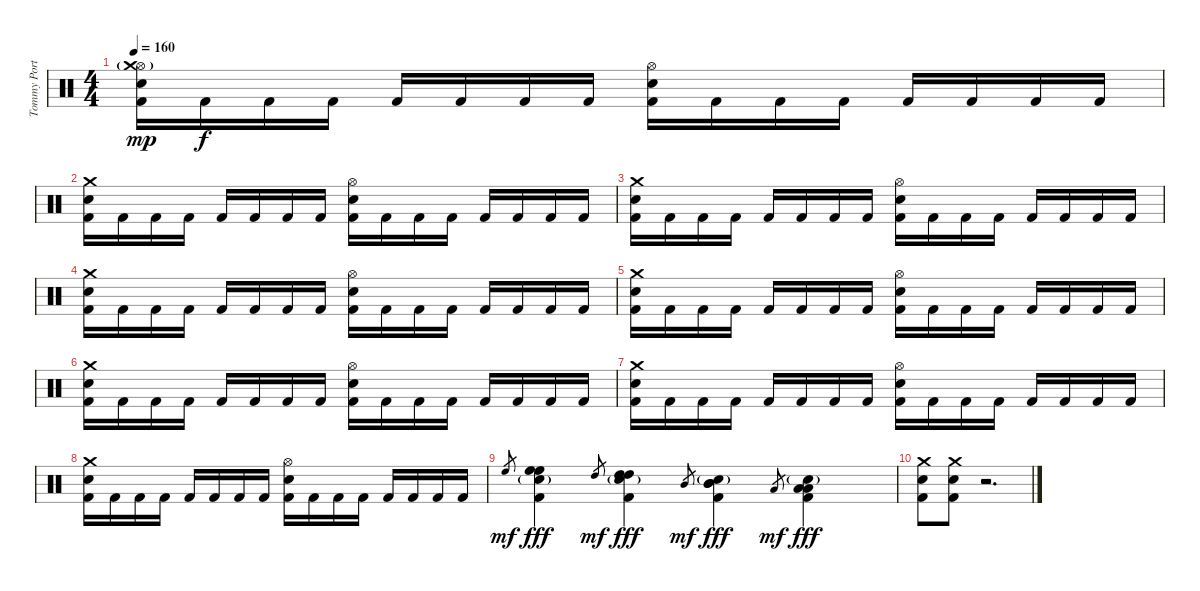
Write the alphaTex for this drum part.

\track ("Tommy Portino" "Tommy Port") {instrument percussion}
\staff {score}
\articulation defaults
\ts (4 4)
\tempo 160
\clef neutral
\ks c
("Hi-Hat (open)"{g} "Crash medium (hit)" "Snare (hit) 2" "Kick (hit) 2").16{dy mp} "Kick (hit) 2".16{dy f} "Kick (hit) 2".16 "Kick (hit) 2".16 "Kick (hit) 2".16 "Kick (hit) 2".16 "Kick (hit) 2".16 "Kick (hit) 2".16 ("Hi-Hat (open)" "Snare (hit) 2" "Kick (hit) 2").16 "Kick (hit) 2".16 "Kick (hit) 2".16 "Kick (hit) 2".16 "Kick (hit) 2".16 "Kick (hit) 2".16 "Kick (hit) 2".16 "Kick (hit) 2".16 |
("Crash medium (hit)" "Snare (hit) 2" "Kick (hit) 2").16 "Kick (hit) 2".16 "Kick (hit) 2".16 "Kick (hit) 2".16 "Kick (hit) 2".16 "Kick (hit) 2".16 "Kick (hit) 2".16 "Kick (hit) 2".16 ("Hi-Hat (open)" "Snare (hit) 2" "Kick (hit) 2").16 "Kick (hit) 2".16 "Kick (hit) 2".16 "Kick (hit) 2".16 "Kick (hit) 2".16 "Kick (hit) 2".16 "Kick (hit) 2".16 "Kick (hit) 2".16 |
("Crash medium (hit)" "Snare (hit) 2" "Kick (hit) 2").16 "Kick (hit) 2".16 "Kick (hit) 2".16 "Kick (hit) 2".16 "Kick (hit) 2".16 "Kick (hit) 2".16 "Kick (hit) 2".16 "Kick (hit) 2".16 ("Hi-Hat (open)" "Snare (hit) 2" "Kick (hit) 2").16 "Kick (hit) 2".16 "Kick (hit) 2".16 "Kick (hit) 2".16 "Kick (hit) 2".16 "Kick (hit) 2".16 "Kick (hit) 2".16 "Kick (hit) 2".16 |
("Crash medium (hit)" "Snare (hit) 2" "Kick (hit) 2").16 "Kick (hit) 2".16 "Kick (hit) 2".16 "Kick (hit) 2".16 "Kick (hit) 2".16 "Kick (hit) 2".16 "Kick (hit) 2".16 "Kick (hit) 2".16 ("Hi-Hat (open)" "Snare (hit) 2" "Kick (hit) 2").16 "Kick (hit) 2".16 "Kick (hit) 2".16 "Kick (hit) 2".16 "Kick (hit) 2".16 "Kick (hit) 2".16 "Kick (hit) 2".16 "Kick (hit) 2".16 |
("Crash medium (hit)" "Snare (hit) 2" "Kick (hit) 2").16 "Kick (hit) 2".16 "Kick (hit) 2".16 "Kick (hit) 2".16 "Kick (hit) 2".16 "Kick (hit) 2".16 "Kick (hit) 2".16 "Kick (hit) 2".16 ("Hi-Hat (open)" "Snare (hit) 2" "Kick (hit) 2").16 "Kick (hit) 2".16 "Kick (hit) 2".16 "Kick (hit) 2".16 "Kick (hit) 2".16 "Kick (hit) 2".16 "Kick (hit) 2".16 "Kick (hit) 2".16 |
("Crash medium (hit)" "Snare (hit) 2" "Kick (hit) 2").16 "Kick (hit) 2".16 "Kick (hit) 2".16 "Kick (hit) 2".16 "Kick (hit) 2".16 "Kick (hit) 2".16 "Kick (hit) 2".16 "Kick (hit) 2".16 ("Hi-Hat (open)" "Snare (hit) 2" "Kick (hit) 2").16 "Kick (hit) 2".16 "Kick (hit) 2".16 "Kick (hit) 2".16 "Kick (hit) 2".16 "Kick (hit) 2".16 "Kick (hit) 2".16 "Kick (hit) 2".16 |
("Crash medium (hit)" "Snare (hit) 2" "Kick (hit) 2").16 "Kick (hit) 2".16 "Kick (hit) 2".16 "Kick (hit) 2".16 "Kick (hit) 2".16 "Kick (hit) 2".16 "Kick (hit) 2".16 "Kick (hit) 2".16 ("Hi-Hat (open)" "Snare (hit) 2" "Kick (hit) 2").16 "Kick (hit) 2".16 "Kick (hit) 2".16 "Kick (hit) 2".16 "Kick (hit) 2".16 "Kick (hit) 2".16 "Kick (hit) 2".16 "Kick (hit) 2".16 |
("Crash medium (hit)" "Snare (hit) 2" "Kick (hit) 2").16 "Kick (hit) 2".16 "Kick (hit) 2".16 "Kick (hit) 2".16 "Kick (hit) 2".16 "Kick (hit) 2".16 "Kick (hit) 2".16 "Kick (hit) 2".16 ("Hi-Hat (open)" "Snare (hit) 2" "Kick (hit) 2").16 "Kick (hit) 2".16 "Kick (hit) 2".16 "Kick (hit) 2".16 "Kick (hit) 2".16 "Kick (hit) 2".16 "Kick (hit) 2".16 "Kick (hit) 2".16 |
"High Floor Tom (hit)".8{gr dy mf} ("Snare (hit) 2"{g} "High Floor Tom (hit)" "High Floor Tom (hit)" "Kick (hit) 2").4{dy fff} "High Tom (hit)".8{gr dy mf} ("Snare (hit) 2"{g} "High Tom (hit)" "High Tom (hit)" "Kick (hit) 2").4{dy fff} "Mid Tom (hit)".8{gr dy mf} ("Snare (hit) 2"{g} "Mid Tom (hit)" "Mid Tom (hit)" "Kick (hit) 2").4{dy fff} "Low Tom (hit)".8{gr dy mf} ("Snare (hit) 2"{g} "Low Tom (hit)" "Low Tom (hit)" "Kick (hit) 2").4{dy fff} |
("Crash medium (hit)" "Snare (hit) 2" "Kick (hit) 2").8 ("Crash medium (hit)" "Snare (hit) 2" "Kick (hit) 2").8 r.2{d}
